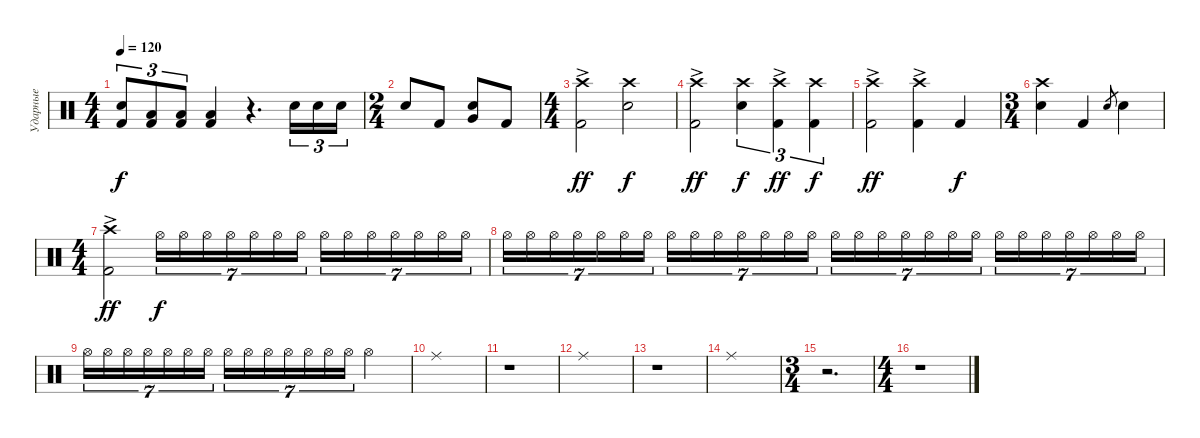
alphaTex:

\track ("Ударные" "Ударные") {instrument percussion}
\staff
\articulation defaults
\ts (4 4)
\tempo 120
\clef neutral
\ks c
("Snare (hit) 2" "Kick (hit) 2").8{tu (3 2) dy f} ("Low Tom (hit)" "Kick (hit) 2").8{tu (3 2)} ("Low Tom (hit)" "Kick (hit) 2").8{tu (3 2)} ("Low Floor Tom (hit)" "Kick (hit) 2").4 r.4{d} "Electric Snare (hit)".16{tu (3 2)} "Electric Snare (hit)".16{tu (3 2)} "Snare (hit) 2".16{tu (3 2)} |
\ts (2 4)
"Snare (hit) 2".8 "Kick (hit) 2".8 ("Very Low Tom (hit)" "Snare (hit) 2").8 "Kick (hit) 2".8 |
\ts (4 4)
("Kick (hit) 2" "Crash high (hit)"{ac}).2{dy ff} ("Snare (hit) 2" "Crash high (hit)").2{dy f} |
("Kick (hit) 2" "Crash high (hit)"{ac}).2{dy ff} ("Snare (hit) 2" "Crash high (hit)").4{tu (3 2) dy f} ("Kick (hit) 2" "Crash high (hit)"{ac}).4{tu (3 2) dy ff} ("Kick (hit) 2" "Crash high (hit)").4{tu (3 2) dy f} |
("Kick (hit) 2" "Crash high (hit)"{ac}).2{dy ff} ("Kick (hit) 2" "Crash high (hit)"{ac}).4 "Kick (hit) 2".4{dy f} |
\ts (3 4)
("Snare (hit) 2" "Crash high (hit)").4 "Kick (hit) 2".4 "Snare (hit) 2".8{gr} "Snare (hit) 2".4 |
\ts (4 4)
("Kick (hit) 2" "Crash high (hit)"{ac}).2{dy ff} "Hi-Hat (open)".16{tu (7 4) dy f volume 2} "Hi-Hat (open)".16{tu (7 4) volume 8} "Hi-Hat (open)".16{tu (7 4)} "Hi-Hat (open)".16{tu (7 4)} "Hi-Hat (open)".16{tu (7 4)} "Hi-Hat (open)".16{tu (7 4)} "Hi-Hat (open)".16{tu (7 4)} "Hi-Hat (open)".16{tu (7 4)} "Hi-Hat (open)".16{tu (7 4)} "Hi-Hat (open)".16{tu (7 4)} "Hi-Hat (open)".16{tu (7 4)} "Hi-Hat (open)".16{tu (7 4)} "Hi-Hat (open)".16{tu (7 4)} "Hi-Hat (open)".16{tu (7 4)} |
"Hi-Hat (open)".16{tu (7 4)} "Hi-Hat (open)".16{tu (7 4)} "Hi-Hat (open)".16{tu (7 4)} "Hi-Hat (open)".16{tu (7 4)} "Hi-Hat (open)".16{tu (7 4)} "Hi-Hat (open)".16{tu (7 4)} "Hi-Hat (open)".16{tu (7 4)} "Hi-Hat (open)".16{tu (7 4)} "Hi-Hat (open)".16{tu (7 4)} "Hi-Hat (open)".16{tu (7 4)} "Hi-Hat (open)".16{tu (7 4)} "Hi-Hat (open)".16{tu (7 4)} "Hi-Hat (open)".16{tu (7 4)} "Hi-Hat (open)".16{tu (7 4)} "Hi-Hat (open)".16{tu (7 4) volume 4} "Hi-Hat (open)".16{tu (7 4)} "Hi-Hat (open)".16{tu (7 4)} "Hi-Hat (open)".16{tu (7 4)} "Hi-Hat (open)".16{tu (7 4)} "Hi-Hat (open)".16{tu (7 4)} "Hi-Hat (open)".16{tu (7 4)} "Hi-Hat (open)".16{tu (7 4) volume 2} "Hi-Hat (open)".16{tu (7 4)} "Hi-Hat (open)".16{tu (7 4)} "Hi-Hat (open)".16{tu (7 4)} "Hi-Hat (open)".16{tu (7 4)} "Hi-Hat (open)".16{tu (7 4)} "Hi-Hat (open)".16{tu (7 4)} |
"Hi-Hat (open)".16{tu (7 4) volume 5} "Hi-Hat (open)".16{tu (7 4)} "Hi-Hat (open)".16{tu (7 4)} "Hi-Hat (open)".16{tu (7 4)} "Hi-Hat (open)".16{tu (7 4)} "Hi-Hat (open)".16{tu (7 4)} "Hi-Hat (open)".16{tu (7 4)} "Hi-Hat (open)".16{tu (7 4)} "Hi-Hat (open)".16{tu (7 4)} "Hi-Hat (open)".16{tu (7 4)} "Hi-Hat (open)".16{tu (7 4)} "Hi-Hat (open)".16{tu (7 4)} "Hi-Hat (open)".16{tu (7 4)} "Hi-Hat (open)".16{tu (7 4)} "Hi-Hat (open)".2 |
"Ride (middle)".1{volume 12} |
r.1 |
"Ride (middle)".1 |
r.1 |
"Ride (middle)".1 |
\ts (3 4)
r.2{d} |
\ts (4 4)
r.1
